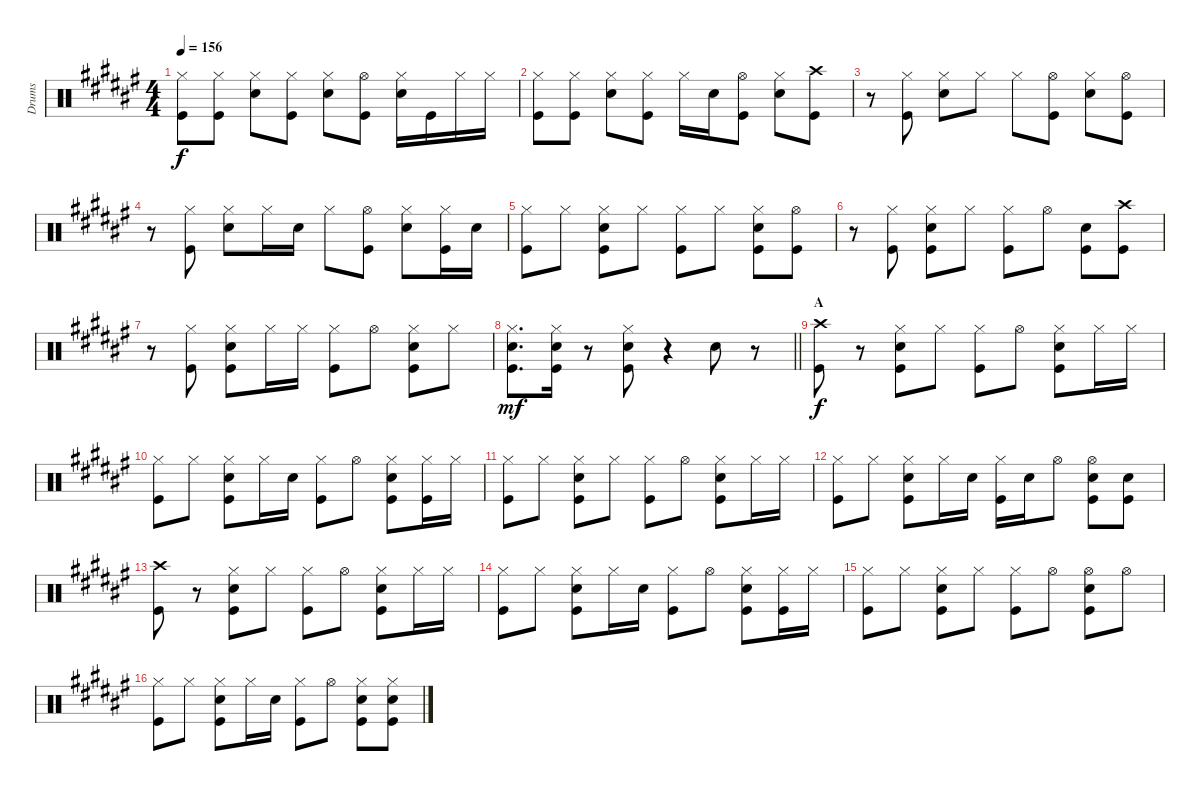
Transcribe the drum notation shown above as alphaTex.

\track ("Drums" "Drums") {instrument percussion}
\staff {score}
\articulation defaults
\ts (4 4)
\tempo 156
\clef neutral
\ks f#
("Hi-Hat (closed)" "Kick (hit)").8{dy f} ("Hi-Hat (closed)" "Kick (hit)").8 ("Hi-Hat (closed)" "Snare (hit) 2").8 ("Hi-Hat (closed)" "Kick (hit)").8 ("Hi-Hat (closed)" "Snare (hit) 2").8 ("Hi-Hat (open)" "Kick (hit)").8 ("Hi-Hat (closed)" "Snare (hit) 2").16 "Kick (hit)".16 "Hi-Hat (closed)".16 "Hi-Hat (closed)".16 |
("Hi-Hat (closed)" "Kick (hit)").8 ("Hi-Hat (closed)" "Kick (hit)").8 ("Hi-Hat (closed)" "Snare (hit) 2").8 ("Hi-Hat (closed)" "Kick (hit)").8 "Hi-Hat (closed)".16 "Snare (hit) 2".16 ("Hi-Hat (open)" "Kick (hit)").8 ("Hi-Hat (closed)" "Snare (hit) 2").8 ("Crash high (hit)" "Kick (hit)").8 |
r.8 ("Hi-Hat (closed)" "Kick (hit)").8 ("Hi-Hat (closed)" "Snare (hit) 2").8 "Hi-Hat (closed)".8 "Hi-Hat (closed)".8 ("Hi-Hat (open)" "Kick (hit)").8 ("Hi-Hat (closed)" "Snare (hit) 2").8 ("Hi-Hat (open)" "Kick (hit)").8 |
r.8 ("Hi-Hat (closed)" "Kick (hit)").8 ("Hi-Hat (closed)" "Snare (hit) 2").8 "Hi-Hat (closed)".16 "Snare (hit) 2".16 "Hi-Hat (closed)".8 ("Hi-Hat (open)" "Kick (hit)").8 ("Hi-Hat (closed)" "Snare (hit) 2").8 ("Hi-Hat (closed)" "Kick (hit)").16 "Snare (hit) 2".16 |
("Hi-Hat (closed)" "Kick (hit)").8 "Hi-Hat (closed)".8 ("Hi-Hat (closed)" "Snare (hit) 2" "Kick (hit)").8 "Hi-Hat (closed)".8 ("Hi-Hat (closed)" "Kick (hit)").8 "Hi-Hat (closed)".8 ("Hi-Hat (closed)" "Snare (hit) 2" "Kick (hit)").8 ("Hi-Hat (open)" "Kick (hit)").8 |
r.8 ("Hi-Hat (closed)" "Kick (hit)").8 ("Hi-Hat (closed)" "Snare (hit) 2" "Kick (hit)").8 "Hi-Hat (closed)".8 ("Hi-Hat (closed)" "Kick (hit)").8 "Hi-Hat (open)".8 ("Snare (hit) 2" "Kick (hit)").8 ("Crash high (hit)" "Kick (hit)").8 |
r.8 ("Hi-Hat (closed)" "Kick (hit)").8 ("Hi-Hat (closed)" "Snare (hit) 2" "Kick (hit)").8 "Hi-Hat (closed)".16 "Hi-Hat (closed)".16 ("Hi-Hat (closed)" "Kick (hit)").8 "Hi-Hat (open)".8 ("Hi-Hat (closed)" "Snare (hit) 2" "Kick (hit)").8 "Hi-Hat (closed)".8 |
\barLineRight lightlight
("Hi-Hat (closed)" "Snare (hit) 2" "Kick (hit)").8{d dy mf} ("Hi-Hat (closed)" "Snare (hit) 2" "Kick (hit)").16 r.8 ("Hi-Hat (closed)" "Snare (hit) 2" "Kick (hit)").8 r.4 "Snare (hit) 2".8 r.8 |
\section ("" "A")
("Crash high (hit)" "Kick (hit)").8{dy f} r.8 ("Hi-Hat (closed)" "Snare (hit) 2" "Kick (hit)").8 "Hi-Hat (closed)".8 ("Hi-Hat (closed)" "Kick (hit)").8 "Hi-Hat (open)".8 ("Hi-Hat (closed)" "Snare (hit) 2" "Kick (hit)").8 "Hi-Hat (closed)".16 "Hi-Hat (closed)".16 |
("Hi-Hat (closed)" "Kick (hit)").8 "Hi-Hat (closed)".8 ("Hi-Hat (closed)" "Snare (hit) 2" "Kick (hit)").8 "Hi-Hat (closed)".16 "Snare (hit) 2".16 ("Hi-Hat (closed)" "Kick (hit)").8 "Hi-Hat (open)".8 ("Hi-Hat (closed)" "Snare (hit) 2" "Kick (hit)").8 ("Hi-Hat (closed)" "Kick (hit)").16 "Hi-Hat (closed)".16 |
("Hi-Hat (closed)" "Kick (hit)").8 "Hi-Hat (closed)".8 ("Hi-Hat (closed)" "Snare (hit) 2" "Kick (hit)").8 "Hi-Hat (closed)".8 ("Hi-Hat (closed)" "Kick (hit)").8 "Hi-Hat (open)".8 ("Hi-Hat (closed)" "Snare (hit) 2" "Kick (hit)").8 "Hi-Hat (closed)".16 "Hi-Hat (closed)".16 |
("Hi-Hat (closed)" "Kick (hit)").8 "Hi-Hat (closed)".8 ("Hi-Hat (closed)" "Snare (hit) 2" "Kick (hit)").8 "Hi-Hat (closed)".16 "Snare (hit) 2".16 ("Hi-Hat (closed)" "Kick (hit)").16 "Snare (hit) 2".16 "Hi-Hat (open)".8 ("Hi-Hat (open)" "Snare (hit) 2" "Kick (hit)").8 ("Snare (hit) 2" "Kick (hit)").8 |
("Crash high (hit)" "Kick (hit)").8 r.8 ("Hi-Hat (closed)" "Snare (hit) 2" "Kick (hit)").8 "Hi-Hat (closed)".8 ("Hi-Hat (closed)" "Kick (hit)").8 "Hi-Hat (open)".8 ("Hi-Hat (closed)" "Snare (hit) 2" "Kick (hit)").8 "Hi-Hat (closed)".16 "Hi-Hat (closed)".16 |
("Hi-Hat (closed)" "Kick (hit)").8 "Hi-Hat (closed)".8 ("Hi-Hat (closed)" "Snare (hit) 2" "Kick (hit)").8 "Hi-Hat (closed)".16 "Snare (hit) 2".16 ("Hi-Hat (closed)" "Kick (hit)").8 "Hi-Hat (open)".8 ("Hi-Hat (closed)" "Snare (hit) 2" "Kick (hit)").8 ("Hi-Hat (closed)" "Kick (hit)").16 "Hi-Hat (closed)".16 |
("Hi-Hat (closed)" "Kick (hit)").8 "Hi-Hat (closed)".8 ("Hi-Hat (closed)" "Snare (hit) 2" "Kick (hit)").8 "Hi-Hat (closed)".8 ("Hi-Hat (closed)" "Kick (hit)").8 "Hi-Hat (open)".8 ("Hi-Hat (open)" "Snare (hit) 2" "Kick (hit)").8 "Hi-Hat (open)".8 |
("Hi-Hat (closed)" "Kick (hit)").8 "Hi-Hat (closed)".8 ("Hi-Hat (closed)" "Snare (hit) 2" "Kick (hit)").8 "Hi-Hat (closed)".16 "Snare (hit) 2".16 ("Hi-Hat (closed)" "Kick (hit)").8 "Hi-Hat (open)".8 ("Hi-Hat (closed)" "Snare (hit) 2" "Kick (hit)").8 ("Hi-Hat (closed)" "Snare (hit) 2" "Kick (hit)").8
